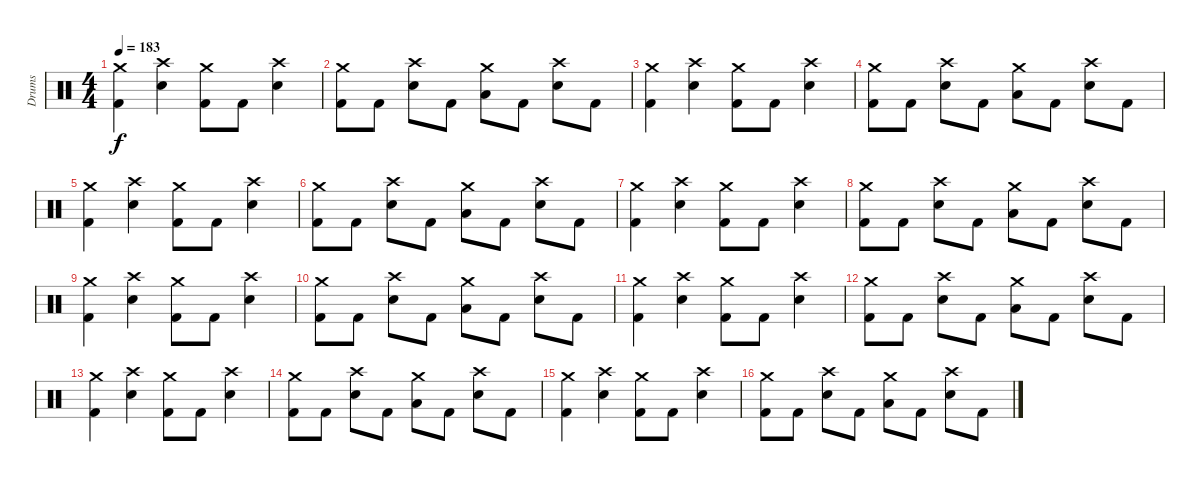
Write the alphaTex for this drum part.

\track ("Drums" "Drums") {instrument percussion}
\staff {score}
\articulation defaults
\ts (4 4)
\tempo 183
\clef neutral
\ks c
("Kick (hit) 2" "Crash medium (hit)").4{dy f} ("Crash high (hit)" "Snare (hit) 2").4 ("Kick (hit) 2" "Crash medium (hit)").8 "Kick (hit) 2".8 ("Crash high (hit)" "Snare (hit) 2").4 |
("Kick (hit) 2" "Crash medium (hit)").8 "Kick (hit) 2".8 ("Crash high (hit)" "Snare (hit) 2").8 "Kick (hit) 2".8 ("Low Tom (hit)" "Crash medium (hit)").8 "Kick (hit) 2".8 ("Crash high (hit)" "Snare (hit) 2").8 "Kick (hit) 2".8 |
("Kick (hit) 2" "Crash medium (hit)").4 ("Crash high (hit)" "Snare (hit) 2").4 ("Kick (hit) 2" "Crash medium (hit)").8 "Kick (hit) 2".8 ("Crash high (hit)" "Snare (hit) 2").4 |
("Kick (hit) 2" "Crash medium (hit)").8 "Kick (hit) 2".8 ("Crash high (hit)" "Snare (hit) 2").8 "Kick (hit) 2".8 ("Low Tom (hit)" "Crash medium (hit)").8 "Kick (hit) 2".8 ("Crash high (hit)" "Snare (hit) 2").8 "Kick (hit) 2".8 |
("Kick (hit) 2" "Crash medium (hit)").4 ("Crash high (hit)" "Snare (hit) 2").4 ("Kick (hit) 2" "Crash medium (hit)").8 "Kick (hit) 2".8 ("Crash high (hit)" "Snare (hit) 2").4 |
("Kick (hit) 2" "Crash medium (hit)").8 "Kick (hit) 2".8 ("Crash high (hit)" "Snare (hit) 2").8 "Kick (hit) 2".8 ("Low Tom (hit)" "Crash medium (hit)").8 "Kick (hit) 2".8 ("Crash high (hit)" "Snare (hit) 2").8 "Kick (hit) 2".8 |
("Kick (hit) 2" "Crash medium (hit)").4 ("Crash high (hit)" "Snare (hit) 2").4 ("Kick (hit) 2" "Crash medium (hit)").8 "Kick (hit) 2".8 ("Snare (hit) 2" "Crash high (hit)").4 |
("Kick (hit) 2" "Crash medium (hit)").8 "Kick (hit) 2".8 ("Crash high (hit)" "Snare (hit) 2").8 "Kick (hit) 2".8 ("Low Tom (hit)" "Crash medium (hit)").8 "Kick (hit) 2".8 ("Crash high (hit)" "Snare (hit) 2").8 "Kick (hit) 2".8 |
("Crash medium (hit)" "Kick (hit) 2").4 ("Snare (hit) 2" "Crash high (hit)").4 ("Kick (hit) 2" "Crash medium (hit)").8 "Kick (hit) 2".8 ("Snare (hit) 2" "Crash high (hit)").4 |
("Kick (hit) 2" "Crash medium (hit)").8 "Kick (hit) 2".8 ("Snare (hit) 2" "Crash high (hit)").8 "Kick (hit) 2".8 ("Low Tom (hit)" "Crash medium (hit)").8 "Kick (hit) 2".8 ("Snare (hit) 2" "Crash high (hit)").8 "Kick (hit) 2".8 |
("Kick (hit) 2" "Crash medium (hit)").4 ("Snare (hit) 2" "Crash high (hit)").4 ("Kick (hit) 2" "Crash medium (hit)").8 "Kick (hit) 2".8 ("Snare (hit) 2" "Crash high (hit)").4 |
("Kick (hit) 2" "Crash medium (hit)").8 "Kick (hit) 2".8 ("Snare (hit) 2" "Crash high (hit)").8 "Kick (hit) 2".8 ("Low Tom (hit)" "Crash medium (hit)").8 "Kick (hit) 2".8 ("Snare (hit) 2" "Crash high (hit)").8 "Kick (hit) 2".8 |
("Kick (hit) 2" "Crash medium (hit)").4 ("Snare (hit) 2" "Crash high (hit)").4 ("Kick (hit) 2" "Crash medium (hit)").8 "Kick (hit) 2".8 ("Snare (hit) 2" "Crash high (hit)").4 |
("Kick (hit) 2" "Crash medium (hit)").8 "Kick (hit) 2".8 ("Snare (hit) 2" "Crash high (hit)").8 "Kick (hit) 2".8 ("Low Tom (hit)" "Crash medium (hit)").8 "Kick (hit) 2".8 ("Snare (hit) 2" "Crash high (hit)").8 "Kick (hit) 2".8 |
("Kick (hit) 2" "Crash medium (hit)").4 ("Snare (hit) 2" "Crash high (hit)").4 ("Kick (hit) 2" "Crash medium (hit)").8 "Kick (hit) 2".8 ("Snare (hit) 2" "Crash high (hit)").4 |
("Kick (hit) 2" "Crash medium (hit)").8 "Kick (hit) 2".8 ("Snare (hit) 2" "Crash high (hit)").8 "Kick (hit) 2".8 ("Low Tom (hit)" "Crash medium (hit)").8 "Kick (hit) 2".8 ("Snare (hit) 2" "Crash high (hit)").8 "Kick (hit) 2".8
